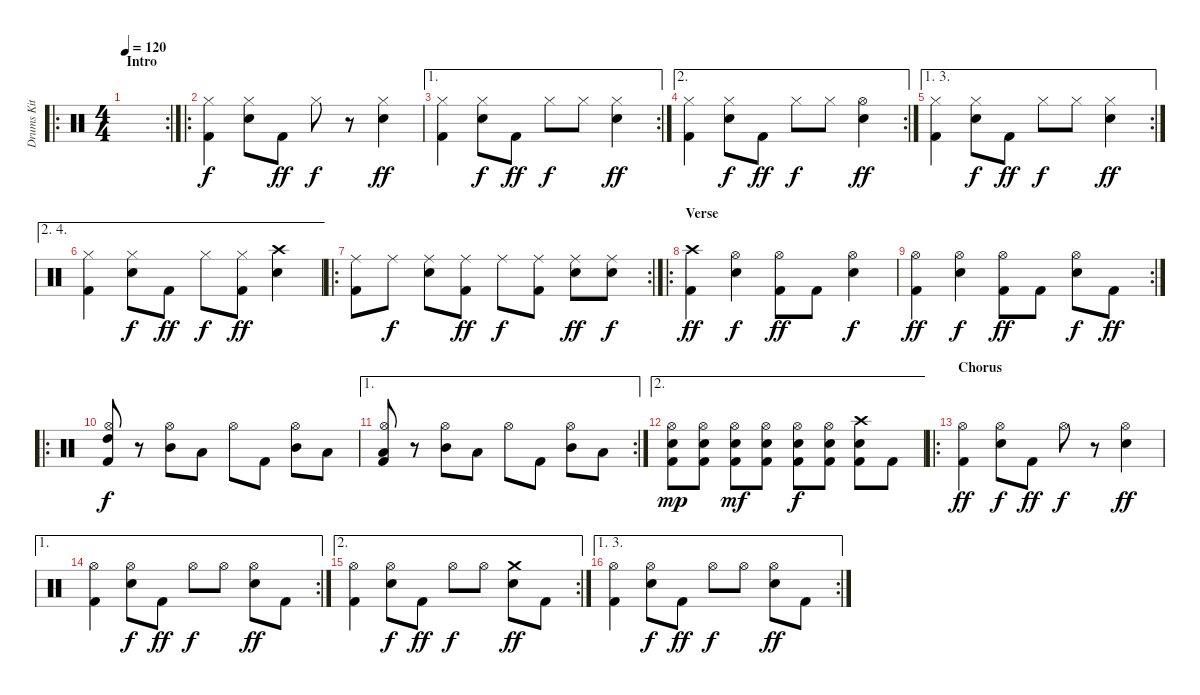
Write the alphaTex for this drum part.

\track ("Drums Kit 42" "Drums Kit ") {instrument percussion}
\staff {score}
\articulation defaults
\ro
\rc 2
\ts (4 4)
\section ("" "Intro")
\tempo 120
\clef neutral
\ks c
|
\ro
("Hi-Hat (closed)" "Kick (hit) 2").4 ("Hi-Hat (closed)" "Electric Snare (hit)").8{dy f} "Kick (hit) 2".8{dy ff} "Hi-Hat (closed)".8{dy f} r.8 ("Hi-Hat (closed)" "Electric Snare (hit)").4{dy ff} |
\ae 1
\rc 2
("Hi-Hat (closed)" "Kick (hit) 2").4 ("Hi-Hat (closed)" "Electric Snare (hit)").8{dy f} "Kick (hit) 2".8{dy ff} "Hi-Hat (closed)".8{dy f} "Hi-Hat (closed)".8 ("Hi-Hat (closed)" "Electric Snare (hit)").4{dy ff} |
\ae 2
\rc 2
("Hi-Hat (closed)" "Kick (hit) 2").4 ("Hi-Hat (closed)" "Electric Snare (hit)").8{dy f} "Kick (hit) 2".8{dy ff} "Hi-Hat (closed)".8{dy f} "Hi-Hat (closed)".8 ("Hi-Hat (open)" "Electric Snare (hit)").4{dy ff} |
\ae (1 3)
\rc 2
("Hi-Hat (closed)" "Kick (hit) 2").4 ("Hi-Hat (closed)" "Electric Snare (hit)").8{dy f} "Kick (hit) 2".8{dy ff} "Hi-Hat (closed)".8{dy f} "Hi-Hat (closed)".8 ("Hi-Hat (closed)" "Electric Snare (hit)").4{dy ff} |
\ae (2 4)
("Hi-Hat (closed)" "Kick (hit) 2").4 ("Hi-Hat (closed)" "Electric Snare (hit)").8{dy f} "Kick (hit) 2".8{dy ff} "Hi-Hat (closed)".8{dy f} ("Hi-Hat (closed)" "Kick (hit) 2").8{dy ff} ("Crash high (hit)" "Electric Snare (hit)").4 |
\ro
\rc 2
("Ride (middle)" "Kick (hit) 2").8 "Ride (middle)".8{dy f} ("Ride (middle)" "Electric Snare (hit)").8 ("Ride (middle)" "Kick (hit) 2").8{dy ff} "Ride (middle)".8{dy f} ("Ride (middle)" "Kick (hit) 2").8 ("Ride (middle)" "Electric Snare (hit)").8{dy ff} ("Ride (middle)" "Electric Snare (hit)").8{dy f} |
\ro
\section ("" "Verse")
("Crash high (hit)" "Kick (hit) 2").4{dy ff} ("Hi-Hat (open)" "Electric Snare (hit)").4{dy f} ("Hi-Hat (open)" "Kick (hit) 2").8{dy ff} "Kick (hit) 2".8 ("Hi-Hat (open)" "Electric Snare (hit)").4{dy f} |
\rc 2
("Hi-Hat (open)" "Kick (hit) 2").4{dy ff} ("Hi-Hat (open)" "Electric Snare (hit)").4{dy f} ("Hi-Hat (open)" "Kick (hit) 2").8{dy ff} "Kick (hit) 2".8 ("Hi-Hat (open)" "Electric Snare (hit)").8{dy f} "Kick (hit) 2".8{dy ff} |
\ro
("Hi-Hat (open)" "High Tom (hit)" "Kick (hit) 2").8{dy f} r.8 ("Hi-Hat (open)" "Mid Tom (hit)").8 "Low Tom (hit)".8 "Hi-Hat (open)".8 "Kick (hit) 2".8 ("Hi-Hat (open)" "Mid Tom (hit)").8 "Low Tom (hit)".8 |
\ae 1
\rc 2
("Hi-Hat (open)" "Low Floor Tom (hit)" "Kick (hit) 2").8 r.8 ("Hi-Hat (open)" "Mid Tom (hit)").8 "Low Tom (hit)".8 "Hi-Hat (open)".8 "Kick (hit) 2".8 ("Hi-Hat (open)" "Mid Tom (hit)").8 "Low Tom (hit)".8 |
\ae 2
("Hi-Hat (open)" "Electric Snare (hit)" "Kick (hit) 2").8{dy mp} ("Hi-Hat (open)" "Electric Snare (hit)" "Kick (hit) 2").8 ("Hi-Hat (open)" "Electric Snare (hit)" "Kick (hit) 2").8{dy mf} ("Hi-Hat (open)" "Electric Snare (hit)" "Kick (hit) 2").8 ("Hi-Hat (open)" "Electric Snare (hit)" "Kick (hit) 2").8{dy f} ("Hi-Hat (open)" "Electric Snare (hit)" "Kick (hit) 2").8 ("Crash high (hit)" "Electric Snare (hit)" "Kick (hit) 2").8 "Kick (hit) 2".8 |
\ro
\section ("" "Chorus")
("Hi-Hat (open)" "Kick (hit) 2").4{dy ff} ("Hi-Hat (open)" "Electric Snare (hit)").8{dy f} "Kick (hit) 2".8{dy ff} "Hi-Hat (open)".8{dy f} r.8 ("Hi-Hat (open)" "Electric Snare (hit)").4{dy ff} |
\ae 1
\rc 2
("Hi-Hat (open)" "Kick (hit) 2").4 ("Hi-Hat (open)" "Electric Snare (hit)").8{dy f} "Kick (hit) 2".8{dy ff} "Hi-Hat (open)".8{dy f} "Hi-Hat (open)".8 ("Hi-Hat (open)" "Electric Snare (hit)").8{dy ff} "Kick (hit) 2".8 |
\ae 2
\rc 2
("Hi-Hat (open)" "Kick (hit) 2").4 ("Hi-Hat (open)" "Electric Snare (hit)").8{dy f} "Kick (hit) 2".8{dy ff} "Hi-Hat (open)".8{dy f} "Hi-Hat (open)".8 ("Crash medium (hit)" "Electric Snare (hit)").8{dy ff} "Kick (hit) 2".8 |
\ae (1 3)
\rc 2
("Hi-Hat (open)" "Kick (hit) 2").4 ("Hi-Hat (open)" "Electric Snare (hit)").8{dy f} "Kick (hit) 2".8{dy ff} "Hi-Hat (open)".8{dy f} "Hi-Hat (open)".8 ("Hi-Hat (open)" "Electric Snare (hit)").8{dy ff} "Kick (hit) 2".8
